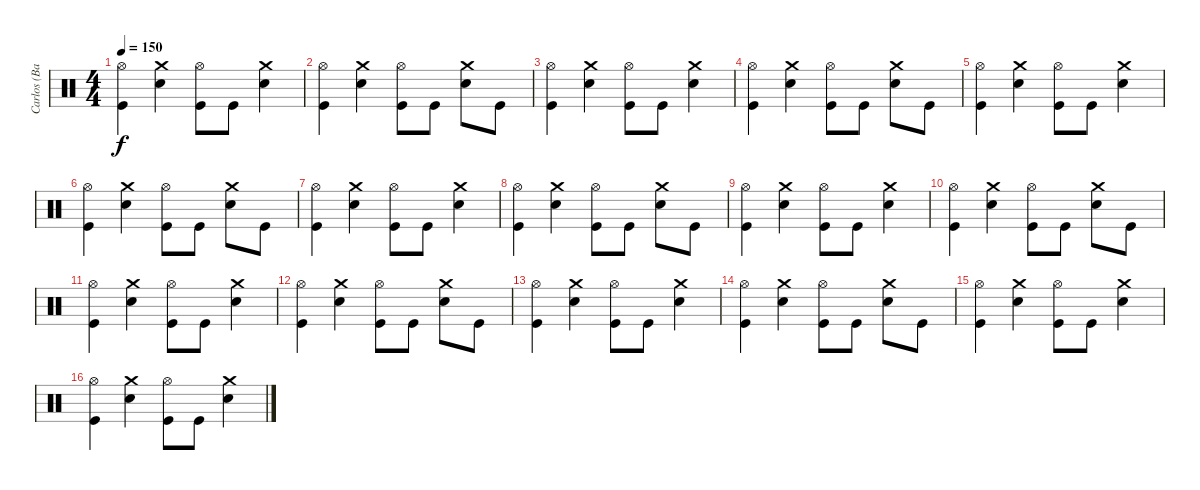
\track ("Carlos (Batería)" "Carlos (Ba") {instrument percussion}
\staff {score}
\articulation defaults
\ts (4 4)
\tempo 150
\clef neutral
\ks c
("Hi-Hat (open)" "Kick (hit)").4{dy f} ("Crash medium (hit)" "Snare (hit) 2").4 ("Hi-Hat (open)" "Kick (hit)").8 "Kick (hit)".8 ("Crash medium (hit)" "Snare (hit) 2").4 |
("Hi-Hat (open)" "Kick (hit)").4 ("Crash medium (hit)" "Snare (hit) 2").4 ("Hi-Hat (open)" "Kick (hit)").8 "Kick (hit)".8 ("Crash medium (hit)" "Snare (hit) 2").8 "Kick (hit)".8 |
("Hi-Hat (open)" "Kick (hit)").4 ("Crash medium (hit)" "Snare (hit) 2").4 ("Hi-Hat (open)" "Kick (hit)").8 "Kick (hit)".8 ("Crash medium (hit)" "Snare (hit) 2").4 |
("Hi-Hat (open)" "Kick (hit)").4 ("Crash medium (hit)" "Snare (hit) 2").4 ("Hi-Hat (open)" "Kick (hit)").8 "Kick (hit)".8 ("Crash medium (hit)" "Snare (hit) 2").8 "Kick (hit)".8 |
("Hi-Hat (open)" "Kick (hit)").4 ("Crash medium (hit)" "Snare (hit) 2").4 ("Hi-Hat (open)" "Kick (hit)").8 "Kick (hit)".8 ("Crash medium (hit)" "Snare (hit) 2").4 |
("Hi-Hat (open)" "Kick (hit)").4 ("Crash medium (hit)" "Snare (hit) 2").4 ("Hi-Hat (open)" "Kick (hit)").8 "Kick (hit)".8 ("Crash medium (hit)" "Snare (hit) 2").8 "Kick (hit)".8 |
("Hi-Hat (open)" "Kick (hit)").4 ("Crash medium (hit)" "Snare (hit) 2").4 ("Hi-Hat (open)" "Kick (hit)").8 "Kick (hit)".8 ("Crash medium (hit)" "Snare (hit) 2").4 |
("Hi-Hat (open)" "Kick (hit)").4 ("Crash medium (hit)" "Snare (hit) 2").4 ("Hi-Hat (open)" "Kick (hit)").8 "Kick (hit)".8 ("Crash medium (hit)" "Snare (hit) 2").8 "Kick (hit)".8 |
("Hi-Hat (open)" "Kick (hit)").4 ("Crash medium (hit)" "Snare (hit) 2").4 ("Hi-Hat (open)" "Kick (hit)").8 "Kick (hit)".8 ("Crash medium (hit)" "Snare (hit) 2").4 |
("Hi-Hat (open)" "Kick (hit)").4 ("Crash medium (hit)" "Snare (hit) 2").4 ("Hi-Hat (open)" "Kick (hit)").8 "Kick (hit)".8 ("Crash medium (hit)" "Snare (hit) 2").8 "Kick (hit)".8 |
("Hi-Hat (open)" "Kick (hit)").4 ("Crash medium (hit)" "Snare (hit) 2").4 ("Hi-Hat (open)" "Kick (hit)").8 "Kick (hit)".8 ("Crash medium (hit)" "Snare (hit) 2").4 |
("Hi-Hat (open)" "Kick (hit)").4 ("Crash medium (hit)" "Snare (hit) 2").4 ("Hi-Hat (open)" "Kick (hit)").8 "Kick (hit)".8 ("Crash medium (hit)" "Snare (hit) 2").8 "Kick (hit)".8 |
("Hi-Hat (open)" "Kick (hit)").4 ("Crash medium (hit)" "Snare (hit) 2").4 ("Hi-Hat (open)" "Kick (hit)").8 "Kick (hit)".8 ("Crash medium (hit)" "Snare (hit) 2").4 |
("Hi-Hat (open)" "Kick (hit)").4 ("Crash medium (hit)" "Snare (hit) 2").4 ("Hi-Hat (open)" "Kick (hit)").8 "Kick (hit)".8 ("Crash medium (hit)" "Snare (hit) 2").8 "Kick (hit)".8 |
("Hi-Hat (open)" "Kick (hit)").4 ("Crash medium (hit)" "Snare (hit) 2").4 ("Hi-Hat (open)" "Kick (hit)").8 "Kick (hit)".8 ("Crash medium (hit)" "Snare (hit) 2").4 |
("Hi-Hat (open)" "Kick (hit)").4 ("Crash medium (hit)" "Snare (hit) 2").4 ("Hi-Hat (open)" "Kick (hit)").8 "Kick (hit)".8 ("Crash medium (hit)" "Snare (hit) 2").4
